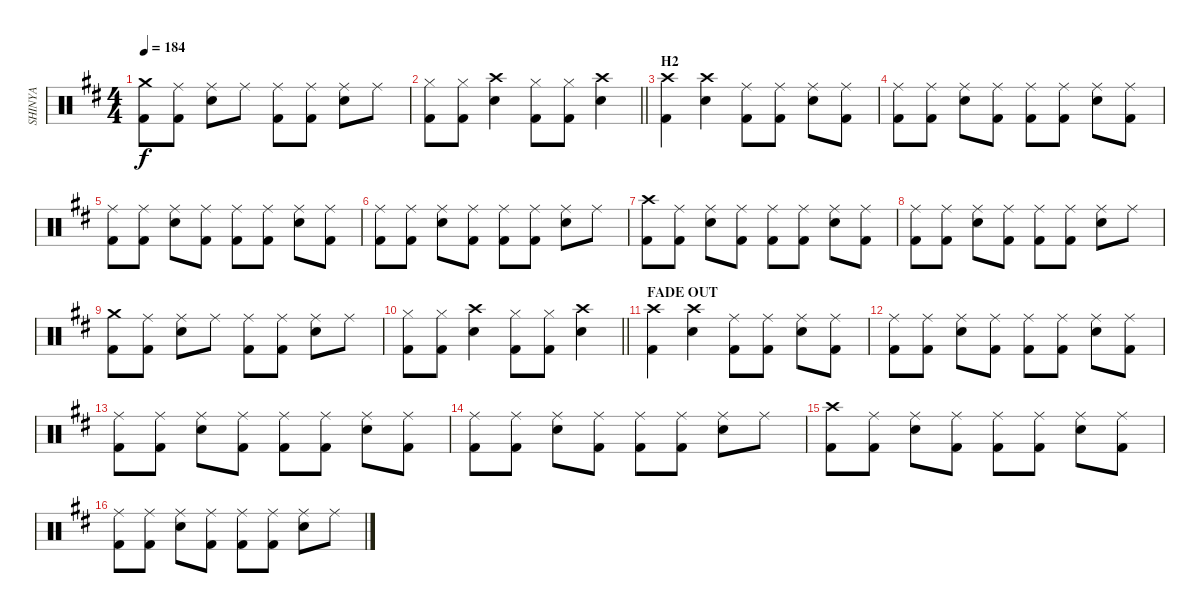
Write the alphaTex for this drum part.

\track ("SHINYA" "SHINYA") {instrument percussion}
\staff {score}
\articulation defaults
\ts (4 4)
\tempo 184
\clef neutral
\ks bminor
("Crash medium (hit)" "Kick (hit) 2").8{dy f} ("Ride (middle)" "Kick (hit) 2").8 ("Ride (middle)" "Snare (hit) 2").8 "Ride (middle)".8 ("Ride (middle)" "Kick (hit) 2").8 ("Ride (middle)" "Kick (hit) 2").8 ("Ride (middle)" "Snare (hit) 2").8 "Ride (middle)".8 |
\barLineRight lightlight
("Hi-Hat (closed)" "Kick (hit) 2").8 ("Hi-Hat (closed)" "Kick (hit) 2").8 ("Crash high (hit)" "Snare (hit) 2").4 ("Hi-Hat (closed)" "Kick (hit) 2").8 ("Hi-Hat (closed)" "Kick (hit) 2").8 ("Crash high (hit)" "Snare (hit) 2").4 |
\section ("" "H2")
("Crash high (hit)" "Kick (hit) 2").4 ("Crash high (hit)" "Snare (hit) 2").4 ("Ride (middle)" "Kick (hit) 2").8 ("Ride (middle)" "Kick (hit) 2").8 ("Ride (middle)" "Snare (hit) 2").8 ("Ride (middle)" "Kick (hit) 2").8 |
("Ride (middle)" "Kick (hit) 2").8 ("Ride (middle)" "Kick (hit) 2").8 ("Ride (middle)" "Snare (hit) 2").8 ("Ride (middle)" "Kick (hit) 2").8 ("Ride (middle)" "Kick (hit) 2").8 ("Ride (middle)" "Kick (hit) 2").8 ("Ride (middle)" "Snare (hit) 2").8 ("Ride (middle)" "Kick (hit) 2").8 |
("Ride (middle)" "Kick (hit) 2").8 ("Ride (middle)" "Kick (hit) 2").8 ("Ride (middle)" "Snare (hit) 2").8 ("Ride (middle)" "Kick (hit) 2").8 ("Ride (middle)" "Kick (hit) 2").8 ("Ride (middle)" "Kick (hit) 2").8 ("Ride (middle)" "Snare (hit) 2").8 ("Ride (middle)" "Kick (hit) 2").8 |
("Ride (middle)" "Kick (hit) 2").8 ("Ride (middle)" "Kick (hit) 2").8 ("Ride (middle)" "Snare (hit) 2").8 ("Ride (middle)" "Kick (hit) 2").8 ("Ride (middle)" "Kick (hit) 2").8 ("Ride (middle)" "Kick (hit) 2").8 ("Ride (middle)" "Snare (hit) 2").8 "Ride (middle)".8 |
("Crash high (hit)" "Kick (hit) 2").8 ("Ride (middle)" "Kick (hit) 2").8 ("Ride (middle)" "Snare (hit) 2").8 ("Ride (middle)" "Kick (hit) 2").8 ("Ride (middle)" "Kick (hit) 2").8 ("Ride (middle)" "Kick (hit) 2").8 ("Ride (middle)" "Snare (hit) 2").8 ("Ride (middle)" "Kick (hit) 2").8 |
("Ride (middle)" "Kick (hit) 2").8 ("Ride (middle)" "Kick (hit) 2").8 ("Ride (middle)" "Snare (hit) 2").8 ("Ride (middle)" "Kick (hit) 2").8 ("Ride (middle)" "Kick (hit) 2").8 ("Ride (middle)" "Kick (hit) 2").8 ("Ride (middle)" "Snare (hit) 2").8 "Ride (middle)".8 |
("Crash medium (hit)" "Kick (hit) 2").8 ("Ride (middle)" "Kick (hit) 2").8 ("Ride (middle)" "Snare (hit) 2").8 "Ride (middle)".8 ("Ride (middle)" "Kick (hit) 2").8 ("Ride (middle)" "Kick (hit) 2").8 ("Ride (middle)" "Snare (hit) 2").8 "Ride (middle)".8 |
\barLineRight lightlight
("Hi-Hat (closed)" "Kick (hit) 2").8 ("Hi-Hat (closed)" "Kick (hit) 2").8 ("Crash high (hit)" "Snare (hit) 2").4 ("Hi-Hat (closed)" "Kick (hit) 2").8 ("Hi-Hat (closed)" "Kick (hit) 2").8 ("Crash high (hit)" "Snare (hit) 2").4 |
\section ("" "FADE OUT")
("Crash high (hit)" "Kick (hit) 2").4 ("Crash high (hit)" "Snare (hit) 2").4 ("Ride (middle)" "Kick (hit) 2").8 ("Ride (middle)" "Kick (hit) 2").8 ("Ride (middle)" "Snare (hit) 2").8 ("Ride (middle)" "Kick (hit) 2").8 |
("Ride (middle)" "Kick (hit) 2").8 ("Ride (middle)" "Kick (hit) 2").8 ("Ride (middle)" "Snare (hit) 2").8 ("Ride (middle)" "Kick (hit) 2").8 ("Ride (middle)" "Kick (hit) 2").8 ("Ride (middle)" "Kick (hit) 2").8 ("Ride (middle)" "Snare (hit) 2").8 ("Ride (middle)" "Kick (hit) 2").8 |
("Ride (middle)" "Kick (hit) 2").8 ("Ride (middle)" "Kick (hit) 2").8 ("Ride (middle)" "Snare (hit) 2").8 ("Ride (middle)" "Kick (hit) 2").8 ("Ride (middle)" "Kick (hit) 2").8 ("Ride (middle)" "Kick (hit) 2").8 ("Ride (middle)" "Snare (hit) 2").8 ("Ride (middle)" "Kick (hit) 2").8 |
("Ride (middle)" "Kick (hit) 2").8 ("Ride (middle)" "Kick (hit) 2").8 ("Ride (middle)" "Snare (hit) 2").8 ("Ride (middle)" "Kick (hit) 2").8 ("Ride (middle)" "Kick (hit) 2").8 ("Ride (middle)" "Kick (hit) 2").8 ("Ride (middle)" "Snare (hit) 2").8 "Ride (middle)".8 |
("Crash high (hit)" "Kick (hit) 2").8 ("Ride (middle)" "Kick (hit) 2").8 ("Ride (middle)" "Snare (hit) 2").8 ("Ride (middle)" "Kick (hit) 2").8 ("Ride (middle)" "Kick (hit) 2").8 ("Ride (middle)" "Kick (hit) 2").8 ("Ride (middle)" "Snare (hit) 2").8 ("Ride (middle)" "Kick (hit) 2").8 |
("Ride (middle)" "Kick (hit) 2").8 ("Ride (middle)" "Kick (hit) 2").8 ("Ride (middle)" "Snare (hit) 2").8 ("Ride (middle)" "Kick (hit) 2").8 ("Ride (middle)" "Kick (hit) 2").8 ("Ride (middle)" "Kick (hit) 2").8 ("Ride (middle)" "Snare (hit) 2").8 "Ride (middle)".8
